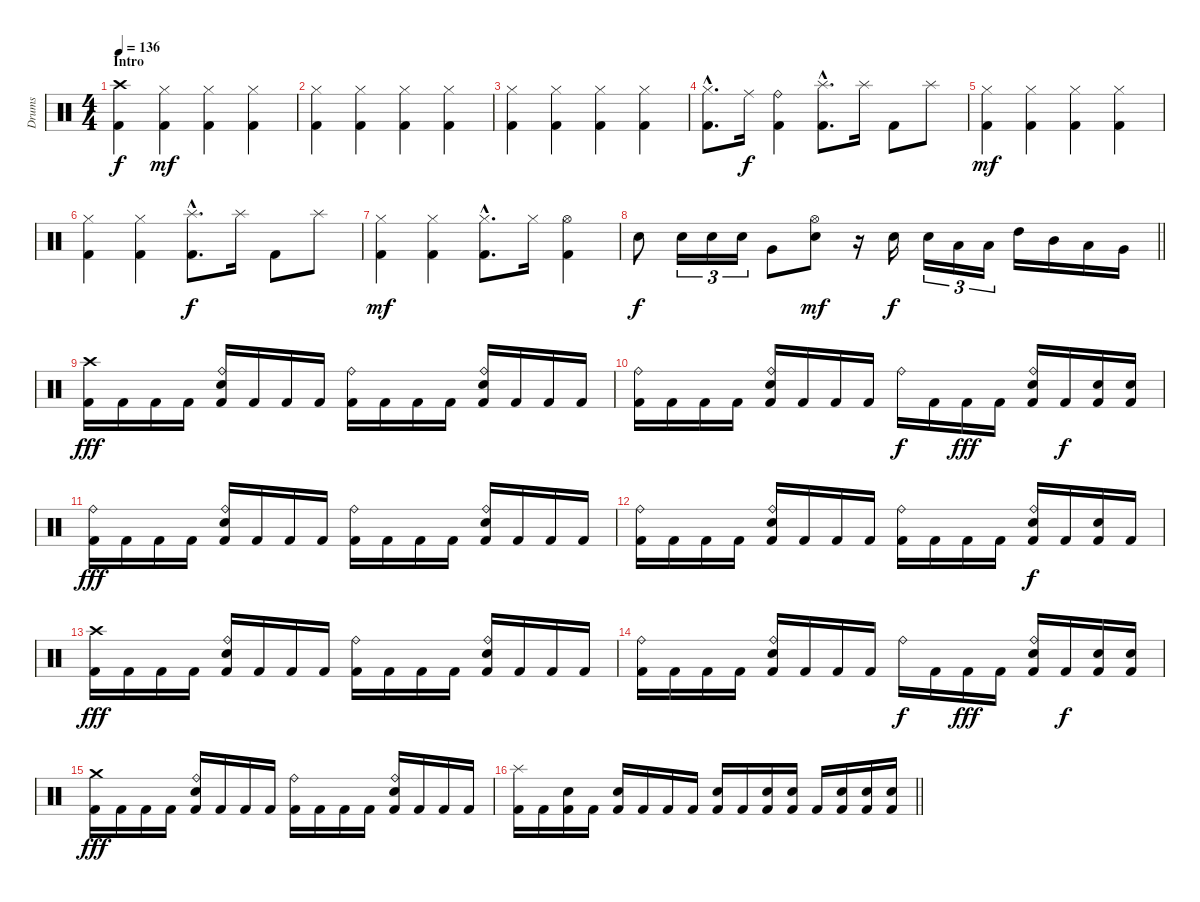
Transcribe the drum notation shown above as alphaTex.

\track ("Drums" "Drums") {instrument percussion}
\staff {score}
\articulation defaults
\ts (4 4)
\section ("" "Intro")
\tempo 136
\clef neutral
\ks c
("Crash high (hit)" "Kick (hit) 2").4{dy f} ("Hi-Hat (closed)" "Kick (hit) 2").4{dy mf} ("Hi-Hat (closed)" "Kick (hit) 2").4 ("Hi-Hat (closed)" "Kick (hit) 2").4 |
("Hi-Hat (closed)" "Kick (hit) 2").4 ("Hi-Hat (closed)" "Kick (hit) 2").4 ("Hi-Hat (closed)" "Kick (hit) 2").4 ("Hi-Hat (closed)" "Kick (hit) 2").4 |
("Hi-Hat (closed)" "Kick (hit) 2").4 ("Hi-Hat (closed)" "Kick (hit) 2").4 ("Hi-Hat (closed)" "Kick (hit) 2").4 ("Hi-Hat (closed)" "Kick (hit) 2").4 |
("Hi-Hat (closed)"{hac} "Kick (hit) 2"{hac}).8{d} "Ride (middle)".16{dy f} ("Ride (bell)" "Kick (hit) 2").4 ("Splash (hit)"{hac} "Kick (hit) 2"{hac}).8{d} "Splash (hit)".16 "Kick (hit) 2".8 "Splash (hit)".8 |
("Hi-Hat (closed)" "Kick (hit) 2").4{dy mf} ("Hi-Hat (closed)" "Kick (hit) 2").4 ("Hi-Hat (closed)" "Kick (hit) 2").4 ("Hi-Hat (closed)" "Kick (hit) 2").4 |
("Hi-Hat (closed)" "Kick (hit) 2").4 ("Hi-Hat (closed)" "Kick (hit) 2").4 ("Splash (hit)"{hac} "Kick (hit) 2"{hac}).8{d dy f} "Splash (hit)".16 "Kick (hit) 2".8 "Splash (hit)".8 |
("Hi-Hat (closed)" "Kick (hit) 2").4{dy mf} ("Hi-Hat (closed)" "Kick (hit) 2").4 ("Hi-Hat (closed)"{hac} "Kick (hit) 2"{hac}).8{d} "Hi-Hat (closed)".16 ("Hi-Hat (open)" "Kick (hit) 2").4 |
\barLineRight lightlight "Electric Snare (hit)".8{dy f} "Electric Snare (hit)".16{tu (3 2)} "Electric Snare (hit)".16{tu (3 2)} "Electric Snare (hit)".16{tu (3 2)} "Very Low Tom (hit)".8
("Hi-Hat (open)" "Electric Snare (hit)").8{dy mf} r.16 "Electric Snare (hit)".16{dy f} "Electric Snare (hit)".16{tu (3 2)} "Low Tom (hit)".16{tu (3 2)} "Low Tom (hit)".16{tu (3 2)} "High Tom (hit)".16 "Mid Tom (hit)".16 "Low Tom (hit)".16 "Very Low Tom (hit)".16 |
\section ("" "")
("Crash high (hit)" "Kick (hit) 2").16{dy fff} "Kick (hit) 2".16 "Kick (hit) 2".16 "Kick (hit) 2".16 ("Ride (bell)" "Electric Snare (hit)" "Kick (hit) 2").16 "Kick (hit) 2".16 "Kick (hit) 2".16 "Kick (hit) 2".16 ("Ride (bell)" "Kick (hit) 2").16 "Kick (hit) 2".16 "Kick (hit) 2".16 "Kick (hit) 2".16 ("Ride (bell)" "Electric Snare (hit)" "Kick (hit) 2").16 "Kick (hit) 2".16 "Kick (hit) 2".16 "Kick (hit) 2".16 |
("Ride (bell)" "Kick (hit) 2").16 "Kick (hit) 2".16 "Kick (hit) 2".16 "Kick (hit) 2".16 ("Ride (bell)" "Electric Snare (hit)" "Kick (hit) 2").16 "Kick (hit) 2".16 "Kick (hit) 2".16 "Kick (hit) 2".16 "Ride (bell)".16{dy f} "Kick (hit) 2".16 "Kick (hit) 2".16{dy fff} "Kick (hit) 2".16 ("Ride (bell)" "Electric Snare (hit)" "Kick (hit) 2").16 "Kick (hit) 2".16{dy f} ("Electric Snare (hit)" "Kick (hit) 2").16 ("Electric Snare (hit)" "Kick (hit) 2").16 |
("Ride (bell)" "Kick (hit) 2").16{dy fff} "Kick (hit) 2".16 "Kick (hit) 2".16 "Kick (hit) 2".16 ("Ride (bell)" "Electric Snare (hit)" "Kick (hit) 2").16 "Kick (hit) 2".16 "Kick (hit) 2".16 "Kick (hit) 2".16 ("Ride (bell)" "Kick (hit) 2").16 "Kick (hit) 2".16 "Kick (hit) 2".16 "Kick (hit) 2".16 ("Ride (bell)" "Electric Snare (hit)" "Kick (hit) 2").16 "Kick (hit) 2".16 "Kick (hit) 2".16 "Kick (hit) 2".16 |
("Ride (bell)" "Kick (hit) 2").16 "Kick (hit) 2".16 "Kick (hit) 2".16 "Kick (hit) 2".16 ("Ride (bell)" "Electric Snare (hit)" "Kick (hit) 2").16 "Kick (hit) 2".16 "Kick (hit) 2".16 "Kick (hit) 2".16 ("Ride (bell)" "Kick (hit) 2").16 "Kick (hit) 2".16 "Kick (hit) 2".16 "Kick (hit) 2".16 ("Ride (bell)" "Electric Snare (hit)" "Kick (hit) 2").16{dy f} "Kick (hit) 2".16 ("Electric Snare (hit)" "Kick (hit) 2").16 "Kick (hit) 2".16 |
("Crash high (hit)" "Kick (hit) 2").16{dy fff} "Kick (hit) 2".16 "Kick (hit) 2".16 "Kick (hit) 2".16 ("Ride (bell)" "Electric Snare (hit)" "Kick (hit) 2").16 "Kick (hit) 2".16 "Kick (hit) 2".16 "Kick (hit) 2".16 ("Ride (bell)" "Kick (hit) 2").16 "Kick (hit) 2".16 "Kick (hit) 2".16 "Kick (hit) 2".16 ("Ride (bell)" "Electric Snare (hit)" "Kick (hit) 2").16 "Kick (hit) 2".16 "Kick (hit) 2".16 "Kick (hit) 2".16 |
("Ride (bell)" "Kick (hit) 2").16 "Kick (hit) 2".16 "Kick (hit) 2".16 "Kick (hit) 2".16 ("Ride (bell)" "Electric Snare (hit)" "Kick (hit) 2").16 "Kick (hit) 2".16 "Kick (hit) 2".16 "Kick (hit) 2".16 "Ride (bell)".16{dy f} "Kick (hit) 2".16 "Kick (hit) 2".16{dy fff} "Kick (hit) 2".16 ("Ride (bell)" "Electric Snare (hit)" "Kick (hit) 2").16 "Kick (hit) 2".16{dy f} ("Electric Snare (hit)" "Kick (hit) 2").16 ("Electric Snare (hit)" "Kick (hit) 2").16 |
("Crash medium (hit)" "Kick (hit) 2").16{dy fff} "Kick (hit) 2".16 "Kick (hit) 2".16 "Kick (hit) 2".16 ("Ride (bell)" "Electric Snare (hit)" "Kick (hit) 2").16 "Kick (hit) 2".16 "Kick (hit) 2".16 "Kick (hit) 2".16 ("Ride (bell)" "Kick (hit) 2").16 "Kick (hit) 2".16 "Kick (hit) 2".16 "Kick (hit) 2".16 ("Ride (bell)" "Electric Snare (hit)" "Kick (hit) 2").16 "Kick (hit) 2".16 "Kick (hit) 2".16 "Kick (hit) 2".16 |
\barLineRight lightlight
("Splash (hit)" "Kick (hit) 2").16 "Kick (hit) 2".16 ("Electric Snare (hit)" "Kick (hit) 2").16 "Kick (hit) 2".16 ("Electric Snare (hit)" "Kick (hit) 2").16 "Kick (hit) 2".16 "Kick (hit) 2".16 "Kick (hit) 2".16 ("Electric Snare (hit)" "Kick (hit) 2").16 "Kick (hit) 2".16 ("Electric Snare (hit)" "Kick (hit) 2").16 ("Electric Snare (hit)" "Kick (hit) 2").16 "Kick (hit) 2".16 ("Electric Snare (hit)" "Kick (hit) 2").16 ("Electric Snare (hit)" "Kick (hit) 2").16 ("Electric Snare (hit)" "Kick (hit) 2").16
